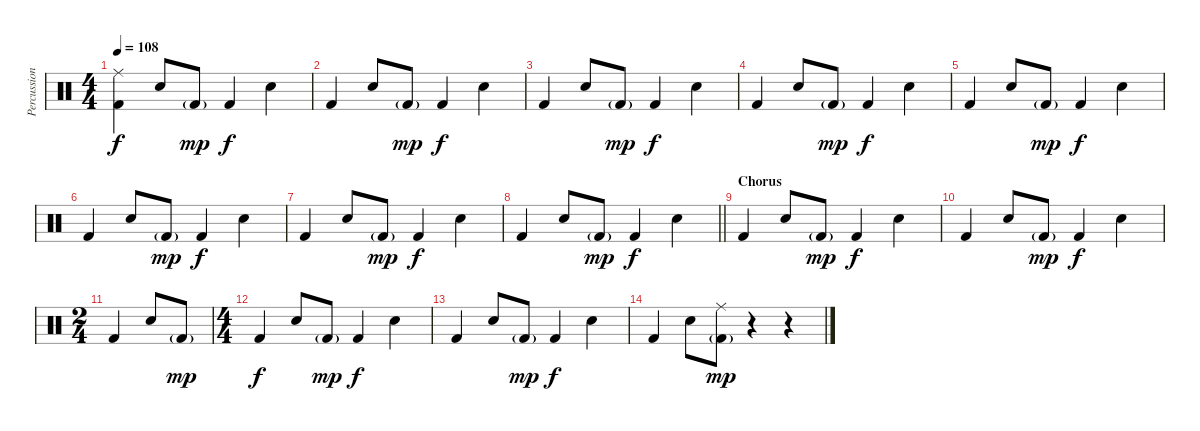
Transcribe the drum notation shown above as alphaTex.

\track ("Percussion" "Percussion") {instrument percussion}
\staff {score}
\articulation defaults
\ts (4 4)
\tempo 108
\clef neutral
\ks c
("Ride (middle)" "Kick (hit) 2").4{dy f} "Snare (hit) 2".8 "Kick (hit) 2"{g}.8{dy mp} "Kick (hit) 2".4{dy f} "Snare (hit) 2".4 |
"Kick (hit) 2".4 "Snare (hit) 2".8 "Kick (hit) 2"{g}.8{dy mp} "Kick (hit) 2".4{dy f} "Snare (hit) 2".4 |
"Kick (hit) 2".4 "Snare (hit) 2".8 "Kick (hit) 2"{g}.8{dy mp} "Kick (hit) 2".4{dy f} "Snare (hit) 2".4 |
"Kick (hit) 2".4 "Snare (hit) 2".8 "Kick (hit) 2"{g}.8{dy mp} "Kick (hit) 2".4{dy f} "Snare (hit) 2".4 |
"Kick (hit) 2".4 "Snare (hit) 2".8 "Kick (hit) 2"{g}.8{dy mp} "Kick (hit) 2".4{dy f} "Snare (hit) 2".4 |
"Kick (hit) 2".4 "Snare (hit) 2".8 "Kick (hit) 2"{g}.8{dy mp} "Kick (hit) 2".4{dy f} "Snare (hit) 2".4 |
"Kick (hit) 2".4 "Snare (hit) 2".8 "Kick (hit) 2"{g}.8{dy mp} "Kick (hit) 2".4{dy f} "Snare (hit) 2".4 |
\barLineRight lightlight "Kick (hit) 2".4 "Snare (hit) 2".8 "Kick (hit) 2"{g}.8{dy mp} "Kick (hit) 2".4{dy f} "Snare (hit) 2".4
|
\section ("" "Chorus")
"Kick (hit) 2".4 "Snare (hit) 2".8 "Kick (hit) 2"{g}.8{dy mp} "Kick (hit) 2".4{dy f} "Snare (hit) 2".4 |
"Kick (hit) 2".4 "Snare (hit) 2".8 "Kick (hit) 2"{g}.8{dy mp} "Kick (hit) 2".4{dy f} "Snare (hit) 2".4 |
\ts (2 4)
"Kick (hit) 2".4 "Snare (hit) 2".8 "Kick (hit) 2"{g}.8{dy mp} |
\ts (4 4)
"Kick (hit) 2".4{dy f} "Snare (hit) 2".8 "Kick (hit) 2"{g}.8{dy mp} "Kick (hit) 2".4{dy f} "Snare (hit) 2".4 |
"Kick (hit) 2".4 "Snare (hit) 2".8 "Kick (hit) 2"{g}.8{dy mp} "Kick (hit) 2".4{dy f} "Snare (hit) 2".4 |
"Kick (hit) 2".4 "Snare (hit) 2".8 ("Ride (middle)" "Kick (hit) 2"{g}).8{dy mp} r.4 r.4
